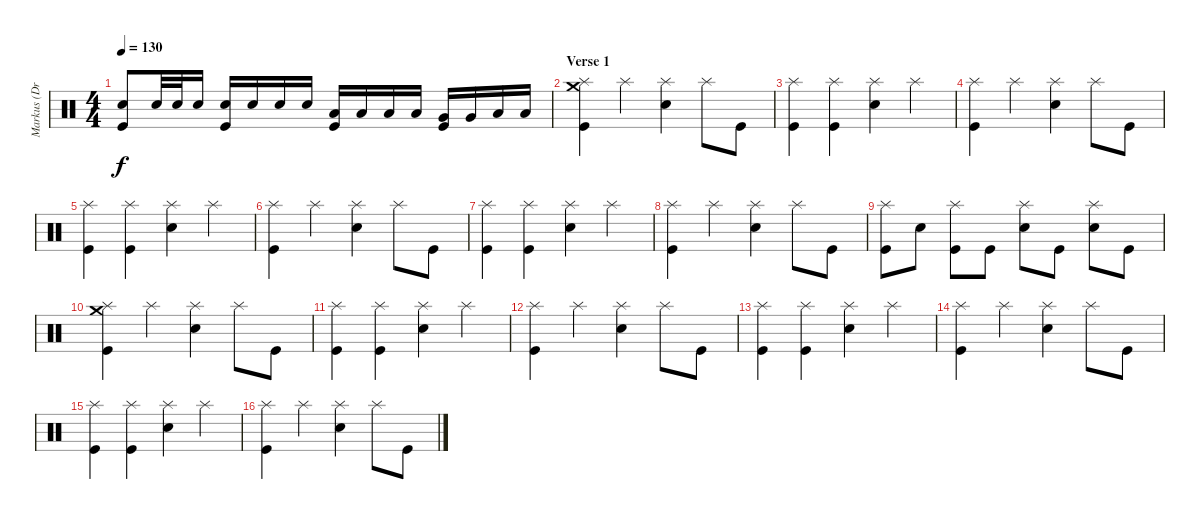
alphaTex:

\track ("Markus (Drums)" "Markus (Dr") {instrument percussion}
\staff {score}
\articulation defaults
\ts (4 4)
\tempo 130
\clef neutral
\ks c
("Electric Snare (hit)" "Kick (hit)").8{dy f} "Electric Snare (hit)".32 "Electric Snare (hit)".32 "Electric Snare (hit)".16 ("Electric Snare (hit)" "Kick (hit)").16 "Electric Snare (hit)".16 "Electric Snare (hit)".16 "Electric Snare (hit)".16 ("Low Tom (hit)" "Kick (hit)").16 "Low Tom (hit)".16 "Low Tom (hit)".16 "Low Tom (hit)".16 ("Very Low Tom (hit)" "Kick (hit)").16 "Very Low Tom (hit)".16 "Low Floor Tom (hit)".16 "Low Floor Tom (hit)".16 |
\section ("" "Verse 1")
("Crash medium (hit)" "Splash (hit)" "Kick (hit)").4 "Splash (hit)".4 ("Splash (hit)" "Electric Snare (hit)").4 "Splash (hit)".8 "Kick (hit)".8 |
("Splash (hit)" "Kick (hit)").4 ("Splash (hit)" "Kick (hit)").4 ("Splash (hit)" "Electric Snare (hit)").4 "Splash (hit)".4 |
("Splash (hit)" "Kick (hit)").4 "Splash (hit)".4 ("Splash (hit)" "Electric Snare (hit)").4 "Splash (hit)".8 "Kick (hit)".8 |
("Splash (hit)" "Kick (hit)").4 ("Splash (hit)" "Kick (hit)").4 ("Splash (hit)" "Electric Snare (hit)").4 "Splash (hit)".4 |
("Splash (hit)" "Kick (hit)").4 "Splash (hit)".4 ("Splash (hit)" "Electric Snare (hit)").4 "Splash (hit)".8 "Kick (hit)".8 |
("Splash (hit)" "Kick (hit)").4 ("Splash (hit)" "Kick (hit)").4 ("Splash (hit)" "Electric Snare (hit)").4 "Splash (hit)".4 |
("Splash (hit)" "Kick (hit)").4 "Splash (hit)".4 ("Splash (hit)" "Electric Snare (hit)").4 "Splash (hit)".8 "Kick (hit)".8 |
("Splash (hit)" "Kick (hit)").8 "Electric Snare (hit)".8 ("Splash (hit)" "Kick (hit)").8 "Kick (hit)".8 ("Splash (hit)" "Electric Snare (hit)").8 "Kick (hit)".8 ("Splash (hit)" "Electric Snare (hit)").8 "Kick (hit)".8 |
\section ("" "")
("Crash medium (hit)" "Splash (hit)" "Kick (hit)").4 "Splash (hit)".4 ("Splash (hit)" "Electric Snare (hit)").4 "Splash (hit)".8 "Kick (hit)".8 |
("Splash (hit)" "Kick (hit)").4 ("Splash (hit)" "Kick (hit)").4 ("Splash (hit)" "Electric Snare (hit)").4 "Splash (hit)".4 |
("Splash (hit)" "Kick (hit)").4 "Splash (hit)".4 ("Splash (hit)" "Electric Snare (hit)").4 "Splash (hit)".8 "Kick (hit)".8 |
("Splash (hit)" "Kick (hit)").4 ("Splash (hit)" "Kick (hit)").4 ("Splash (hit)" "Electric Snare (hit)").4 "Splash (hit)".4 |
("Splash (hit)" "Kick (hit)").4 "Splash (hit)".4 ("Splash (hit)" "Electric Snare (hit)").4 "Splash (hit)".8 "Kick (hit)".8 |
("Splash (hit)" "Kick (hit)").4 ("Splash (hit)" "Kick (hit)").4 ("Splash (hit)" "Electric Snare (hit)").4 "Splash (hit)".4 |
("Splash (hit)" "Kick (hit)").4 "Splash (hit)".4 ("Splash (hit)" "Electric Snare (hit)").4 "Splash (hit)".8 "Kick (hit)".8
